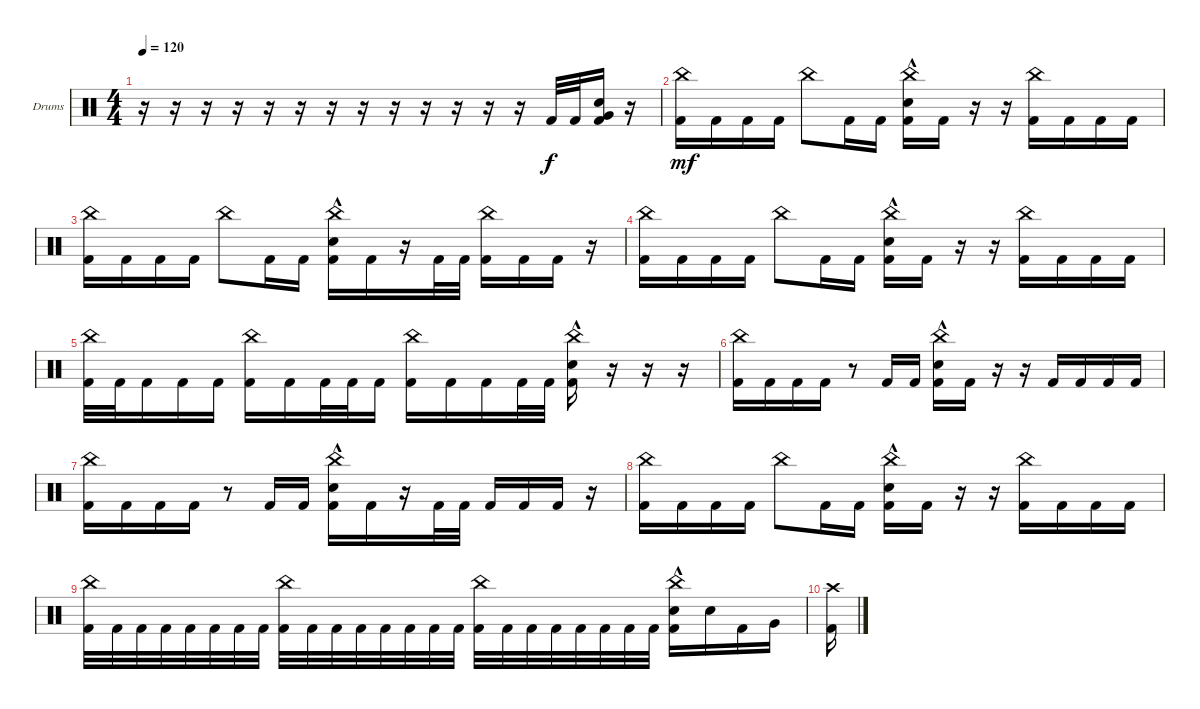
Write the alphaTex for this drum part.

\defaultSystemsLayout 4
\bracketExtendMode groupsimilarinstruments
\firstSystemTrackNameOrientation horizontal
\otherSystemsTrackNameOrientation horizontal
\track ("Drumkit" "Drums") {instrument percussion}
\staff {score}
\articulation defaults
\ts (4 4)
\tempo 120
\clef neutral
\ks c
r.16{dy mf} r.16 r.16 r.16 r.16 r.16 r.16 r.16 r.16 r.16 r.16 r.16 r.16 "Kick (hit) 2".32{dy f} "Kick (hit) 2".32 ("Kick (hit) 2" "Very Low Tom (hit)" "Snare (hit) 2").16 r.16 |
("China (hit)" "Kick (hit) 2").16{dy mf} "Kick (hit) 2".16 "Kick (hit) 2".16 "Kick (hit) 2".16 "China (hit)".8 "Kick (hit) 2".16 "Kick (hit) 2".16 ("Kick (hit) 2" "China (hit)" "Snare (hit) 2"{hac}).16 "Kick (hit) 2".16 r.16 r.16 ("China (hit)" "Kick (hit) 2").16 "Kick (hit) 2".16 "Kick (hit) 2".16 "Kick (hit) 2".16 |
("China (hit)" "Kick (hit) 2").16 "Kick (hit) 2".16 "Kick (hit) 2".16 "Kick (hit) 2".16 "China (hit)".8 "Kick (hit) 2".16 "Kick (hit) 2".16 ("Kick (hit) 2" "China (hit)" "Snare (hit) 2"{hac}).16 "Kick (hit) 2".16 r.16 "Kick (hit) 2".32 "Kick (hit) 2".32 ("China (hit)" "Kick (hit) 2").16 "Kick (hit) 2".16 "Kick (hit) 2".16 r.16 |
("China (hit)" "Kick (hit) 2").16 "Kick (hit) 2".16 "Kick (hit) 2".16 "Kick (hit) 2".16 "China (hit)".8 "Kick (hit) 2".16 "Kick (hit) 2".16 ("Kick (hit) 2" "China (hit)" "Snare (hit) 2"{hac}).16 "Kick (hit) 2".16 r.16 r.16 ("China (hit)" "Kick (hit) 2").16 "Kick (hit) 2".16 "Kick (hit) 2".16 "Kick (hit) 2".16 |
("China (hit)" "Kick (hit) 2").32 "Kick (hit) 2".32 "Kick (hit) 2".16 "Kick (hit) 2".16 "Kick (hit) 2".16 ("China (hit)" "Kick (hit) 2").16 "Kick (hit) 2".16 "Kick (hit) 2".32 "Kick (hit) 2".32 "Kick (hit) 2".16 ("Kick (hit) 2" "China (hit)").16 "Kick (hit) 2".16 "Kick (hit) 2".16 "Kick (hit) 2".32 "Kick (hit) 2".32 ("China (hit)" "Kick (hit) 2" "Snare (hit) 2"{hac}).16 r.16 r.16 r.16 |
("China (hit)" "Kick (hit) 2").16 "Kick (hit) 2".16 "Kick (hit) 2".16 "Kick (hit) 2".16 r.8 "Kick (hit) 2".16 "Kick (hit) 2".16 ("Kick (hit) 2" "China (hit)" "Snare (hit) 2"{hac}).16 "Kick (hit) 2".16 r.16 r.16 "Kick (hit) 2".16 "Kick (hit) 2".16 "Kick (hit) 2".16 "Kick (hit) 2".16 |
("China (hit)" "Kick (hit) 2").16 "Kick (hit) 2".16 "Kick (hit) 2".16 "Kick (hit) 2".16 r.8 "Kick (hit) 2".16 "Kick (hit) 2".16 ("Kick (hit) 2" "China (hit)" "Snare (hit) 2"{hac}).16 "Kick (hit) 2".16 r.16 "Kick (hit) 2".32 "Kick (hit) 2".32 "Kick (hit) 2".16 "Kick (hit) 2".16 "Kick (hit) 2".16 r.16 |
("China (hit)" "Kick (hit) 2").16 "Kick (hit) 2".16 "Kick (hit) 2".16 "Kick (hit) 2".16 "China (hit)".8 "Kick (hit) 2".16 "Kick (hit) 2".16 ("Kick (hit) 2" "China (hit)" "Snare (hit) 2"{hac}).16 "Kick (hit) 2".16 r.16 r.16 ("China (hit)" "Kick (hit) 2").16 "Kick (hit) 2".16 "Kick (hit) 2".16 "Kick (hit) 2".16 |
("China (hit)" "Kick (hit) 2").32 "Kick (hit) 2".32 "Kick (hit) 2".32 "Kick (hit) 2".32 "Kick (hit) 2".32 "Kick (hit) 2".32 "Kick (hit) 2".32 "Kick (hit) 2".32 ("China (hit)" "Kick (hit) 2").32 "Kick (hit) 2".32 "Kick (hit) 2".32 "Kick (hit) 2".32 "Kick (hit) 2".32 "Kick (hit) 2".32 "Kick (hit) 2".32 "Kick (hit) 2".32 ("Kick (hit) 2" "China (hit)").32 "Kick (hit) 2".32 "Kick (hit) 2".32 "Kick (hit) 2".32 "Kick (hit) 2".32 "Kick (hit) 2".32 "Kick (hit) 2".32 "Kick (hit) 2".32 ("China (hit)" "Kick (hit) 2" "Snare (hit) 2"{hac}).16 "Snare (hit) 2".16 "Kick (hit) 2".16 "Very Low Tom (hit)".16 |
("Crash high (hit)" "Kick (hit) 2").16
